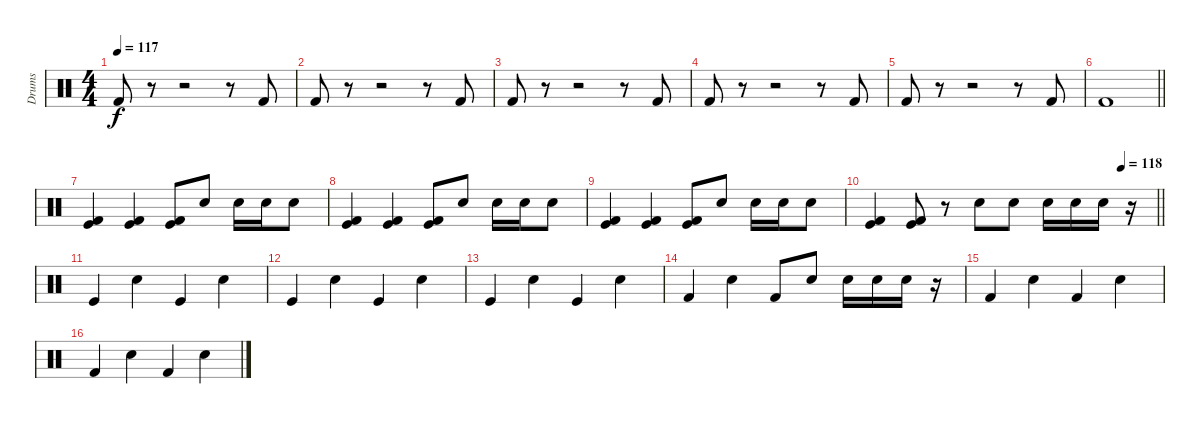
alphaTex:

\track ("Drums" "Drums") {instrument percussion}
\staff {score}
\articulation defaults
\ts (4 4)
\tempo 117
\clef neutral
\ks c "Kick (hit) 2".8{dy f}
r.8 r.2 r.8 "Kick (hit) 2".8 |
"Kick (hit) 2".8 r.8 r.2 r.8 "Kick (hit) 2".8 |
"Kick (hit) 2".8 r.8 r.2 r.8 "Kick (hit) 2".8 |
"Kick (hit) 2".8 r.8 r.2 r.8 "Kick (hit) 2".8 |
"Kick (hit) 2".8 r.8 r.2 r.8 "Kick (hit) 2".8 |
\barLineRight lightlight "Kick (hit) 2".1
|
("Kick (hit)" "Kick (hit) 2").4 ("Kick (hit)" "Kick (hit) 2").4 ("Kick (hit)" "Kick (hit) 2").8 "Snare (hit) 2".8 "Snare (hit) 2".16 "Snare (hit) 2".16 "Snare (hit) 2".8 |
("Kick (hit)" "Kick (hit) 2").4 ("Kick (hit)" "Kick (hit) 2").4 ("Kick (hit)" "Kick (hit) 2").8 "Snare (hit) 2".8 "Snare (hit) 2".16 "Snare (hit) 2".16 "Snare (hit) 2".8 |
("Kick (hit)" "Kick (hit) 2").4 ("Kick (hit)" "Kick (hit) 2").4 ("Kick (hit)" "Kick (hit) 2").8 "Snare (hit) 2".8 "Snare (hit) 2".16 "Snare (hit) 2".16 "Snare (hit) 2".8 |
\tempo (118 0.875)
\barLineRight lightlight
("Kick (hit)" "Kick (hit) 2").4 ("Kick (hit)" "Kick (hit) 2").8 r.8 "Snare (hit) 2".8 "Snare (hit) 2".8 "Snare (hit) 2".16 "Snare (hit) 2".16 "Snare (hit) 2".16 r.16 |
"Kick (hit)".4 "Snare (hit) 2".4 "Kick (hit)".4 "Snare (hit) 2".4 |
"Kick (hit)".4 "Snare (hit) 2".4 "Kick (hit)".4 "Snare (hit) 2".4 |
"Kick (hit)".4 "Snare (hit) 2".4 "Kick (hit)".4 "Snare (hit) 2".4 |
"Kick (hit) 2".4 "Snare (hit) 2".4 "Kick (hit) 2".8 "Snare (hit) 2".8 "Snare (hit) 2".16 "Snare (hit) 2".16 "Snare (hit) 2".16 r.16 |
"Kick (hit) 2".4 "Snare (hit) 2".4 "Kick (hit) 2".4 "Snare (hit) 2".4 |
"Kick (hit) 2".4 "Snare (hit) 2".4 "Kick (hit) 2".4 "Snare (hit) 2".4
